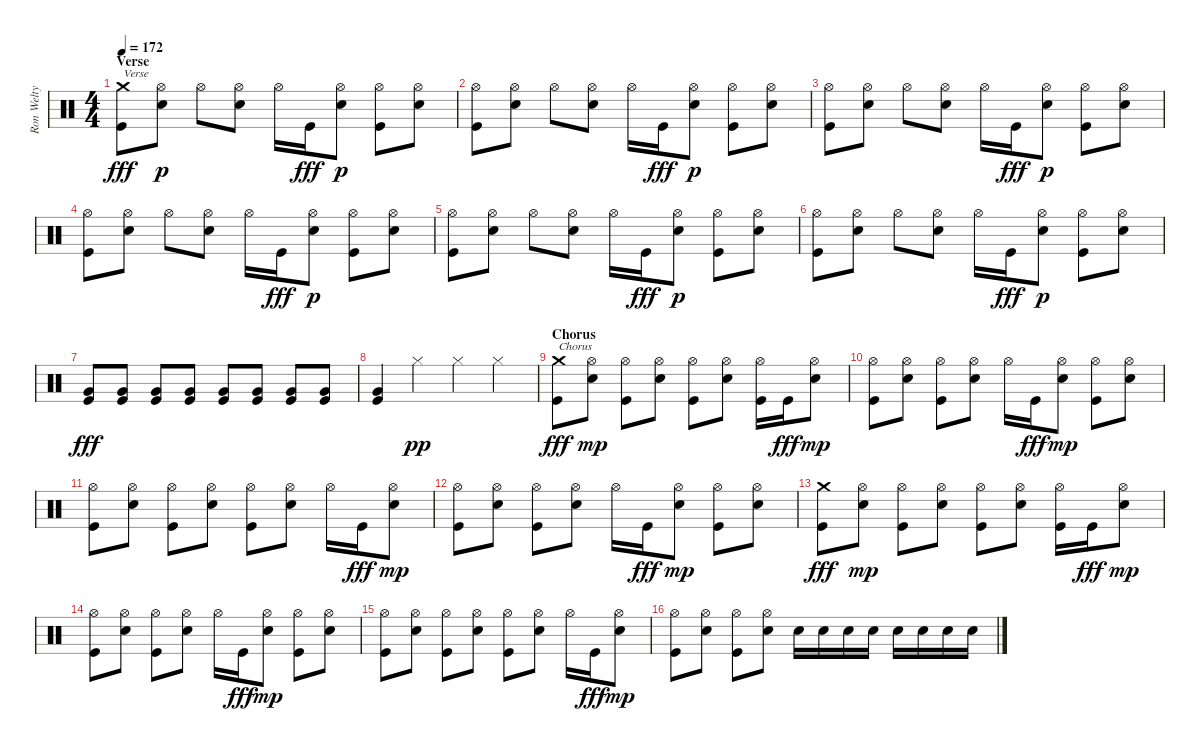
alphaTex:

\track ("Ron Welty (John Wnek's tab)" "Ron Welty ") {instrument percussion}
\staff {score}
\articulation defaults
\ts (4 4)
\section ("" "Verse")
\tempo 172
\clef neutral
\ks c
("Crash medium (hit)" "Kick (hit)").8{txt "Verse" dy fff} ("Snare (hit) 2" "Hi-Hat (open)").8{dy p} "Hi-Hat (open)".8 ("Snare (hit) 2" "Hi-Hat (open)").8 "Hi-Hat (open)".16 "Kick (hit)".16{dy fff} ("Snare (hit) 2" "Hi-Hat (open)").8{dy p} ("Kick (hit)" "Hi-Hat (open)").8 ("Snare (hit) 2" "Hi-Hat (open)").8 |
("Kick (hit)" "Hi-Hat (open)").8 ("Snare (hit) 2" "Hi-Hat (open)").8 "Hi-Hat (open)".8 ("Snare (hit) 2" "Hi-Hat (open)").8 "Hi-Hat (open)".16 "Kick (hit)".16{dy fff} ("Snare (hit) 2" "Hi-Hat (open)").8{dy p} ("Kick (hit)" "Hi-Hat (open)").8 ("Snare (hit) 2" "Hi-Hat (open)").8 |
("Kick (hit)" "Hi-Hat (open)").8 ("Snare (hit) 2" "Hi-Hat (open)").8 "Hi-Hat (open)".8 ("Snare (hit) 2" "Hi-Hat (open)").8 "Hi-Hat (open)".16 "Kick (hit)".16{dy fff} ("Snare (hit) 2" "Hi-Hat (open)").8{dy p} ("Kick (hit)" "Hi-Hat (open)").8 ("Snare (hit) 2" "Hi-Hat (open)").8 |
("Kick (hit)" "Hi-Hat (open)").8 ("Snare (hit) 2" "Hi-Hat (open)").8 "Hi-Hat (open)".8 ("Snare (hit) 2" "Hi-Hat (open)").8 "Hi-Hat (open)".16 "Kick (hit)".16{dy fff} ("Snare (hit) 2" "Hi-Hat (open)").8{dy p} ("Kick (hit)" "Hi-Hat (open)").8 ("Snare (hit) 2" "Hi-Hat (open)").8 |
("Kick (hit)" "Hi-Hat (open)").8 ("Snare (hit) 2" "Hi-Hat (open)").8 "Hi-Hat (open)".8 ("Snare (hit) 2" "Hi-Hat (open)").8 "Hi-Hat (open)".16 "Kick (hit)".16{dy fff} ("Snare (hit) 2" "Hi-Hat (open)").8{dy p} ("Kick (hit)" "Hi-Hat (open)").8 ("Snare (hit) 2" "Hi-Hat (open)").8 |
("Kick (hit)" "Hi-Hat (open)").8 ("Snare (hit) 2" "Hi-Hat (open)").8 "Hi-Hat (open)".8 ("Snare (hit) 2" "Hi-Hat (open)").8 "Hi-Hat (open)".16 "Kick (hit)".16{dy fff} ("Snare (hit) 2" "Hi-Hat (open)").8{dy p} ("Kick (hit)" "Hi-Hat (open)").8 ("Snare (hit) 2" "Hi-Hat (open)").8 |
("Very Low Tom (hit)" "Kick (hit)").8{dy fff} ("Very Low Tom (hit)" "Kick (hit)").8 ("Very Low Tom (hit)" "Kick (hit)").8 ("Very Low Tom (hit)" "Kick (hit)").8 ("Very Low Tom (hit)" "Kick (hit)").8 ("Very Low Tom (hit)" "Kick (hit)").8 ("Very Low Tom (hit)" "Kick (hit)").8 ("Very Low Tom (hit)" "Kick (hit)").8 |
("Very Low Tom (hit)" "Kick (hit)").4 "Hi-Hat (closed)".4{dy pp} "Hi-Hat (closed)".4 "Hi-Hat (closed)".4 |
\section ("" "Chorus")
("Crash medium (hit)" "Kick (hit)").8{txt "Chorus" dy fff} ("Snare (hit) 2" "Hi-Hat (open)").8{dy mp} ("Kick (hit)" "Hi-Hat (open)").8 ("Snare (hit) 2" "Hi-Hat (open)").8 ("Kick (hit)" "Hi-Hat (open)").8 ("Snare (hit) 2" "Hi-Hat (open)").8 ("Kick (hit)" "Hi-Hat (open)").16 "Kick (hit)".16{dy fff} ("Snare (hit) 2" "Hi-Hat (open)").8{dy mp} |
("Kick (hit)" "Hi-Hat (open)").8 ("Snare (hit) 2" "Hi-Hat (open)").8 ("Kick (hit)" "Hi-Hat (open)").8 ("Snare (hit) 2" "Hi-Hat (open)").8 "Hi-Hat (open)".16 "Kick (hit)".16{dy fff} ("Snare (hit) 2" "Hi-Hat (open)").8{dy mp} ("Kick (hit)" "Hi-Hat (open)").8 ("Snare (hit) 2" "Hi-Hat (open)").8 |
("Kick (hit)" "Hi-Hat (open)").8 ("Snare (hit) 2" "Hi-Hat (open)").8 ("Kick (hit)" "Hi-Hat (open)").8 ("Snare (hit) 2" "Hi-Hat (open)").8 ("Kick (hit)" "Hi-Hat (open)").8 ("Snare (hit) 2" "Hi-Hat (open)").8 "Hi-Hat (open)".16 "Kick (hit)".16{dy fff} ("Snare (hit) 2" "Hi-Hat (open)").8{dy mp} |
("Kick (hit)" "Hi-Hat (open)").8 ("Snare (hit) 2" "Hi-Hat (open)").8 ("Kick (hit)" "Hi-Hat (open)").8 ("Snare (hit) 2" "Hi-Hat (open)").8 "Hi-Hat (open)".16 "Kick (hit)".16{dy fff} ("Snare (hit) 2" "Hi-Hat (open)").8{dy mp} ("Kick (hit)" "Hi-Hat (open)").8 ("Snare (hit) 2" "Hi-Hat (open)").8 |
("Crash medium (hit)" "Kick (hit)").8{dy fff} ("Snare (hit) 2" "Hi-Hat (open)").8{dy mp} ("Kick (hit)" "Hi-Hat (open)").8 ("Snare (hit) 2" "Hi-Hat (open)").8 ("Kick (hit)" "Hi-Hat (open)").8 ("Snare (hit) 2" "Hi-Hat (open)").8 ("Kick (hit)" "Hi-Hat (open)").16 "Kick (hit)".16{dy fff} ("Snare (hit) 2" "Hi-Hat (open)").8{dy mp} |
("Kick (hit)" "Hi-Hat (open)").8 ("Snare (hit) 2" "Hi-Hat (open)").8 ("Kick (hit)" "Hi-Hat (open)").8 ("Snare (hit) 2" "Hi-Hat (open)").8 "Hi-Hat (open)".16 "Kick (hit)".16{dy fff} ("Snare (hit) 2" "Hi-Hat (open)").8{dy mp} ("Kick (hit)" "Hi-Hat (open)").8 ("Snare (hit) 2" "Hi-Hat (open)").8 |
("Kick (hit)" "Hi-Hat (open)").8 ("Snare (hit) 2" "Hi-Hat (open)").8 ("Kick (hit)" "Hi-Hat (open)").8 ("Snare (hit) 2" "Hi-Hat (open)").8 ("Kick (hit)" "Hi-Hat (open)").8 ("Snare (hit) 2" "Hi-Hat (open)").8 "Hi-Hat (open)".16 "Kick (hit)".16{dy fff} ("Snare (hit) 2" "Hi-Hat (open)").8{dy mp} |
("Kick (hit)" "Hi-Hat (open)").8 ("Snare (hit) 2" "Hi-Hat (open)").8 ("Kick (hit)" "Hi-Hat (open)").8 ("Snare (hit) 2" "Hi-Hat (open)").8 "Snare (hit) 2".16 "Snare (hit) 2".16 "Snare (hit) 2".16 "Snare (hit) 2".16 "Snare (hit) 2".16 "Snare (hit) 2".16 "Snare (hit) 2".16 "Snare (hit) 2".16
